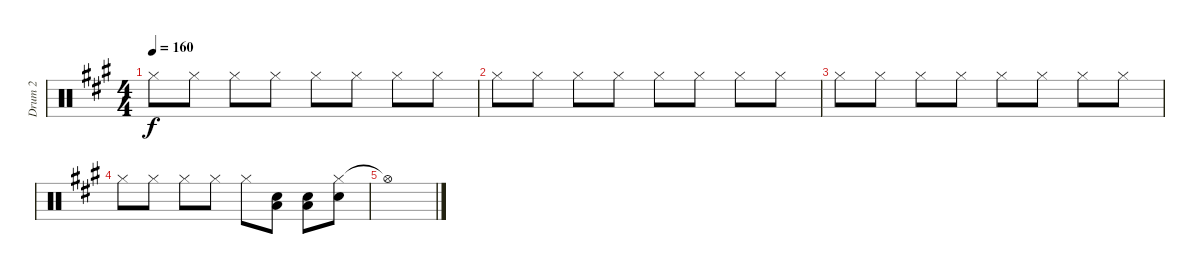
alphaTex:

\track ("Drum 2" "Drum 2") {instrument percussion}
\staff {score}
\articulation defaults
\ts (4 4)
\tempo 160
\clef neutral
\ks a "Hi-Hat (closed)".8{dy f} "Hi-Hat (closed)".8 "Hi-Hat (closed)".8 "Hi-Hat (closed)".8 "Hi-Hat (closed)".8 "Hi-Hat (closed)".8 "Hi-Hat (closed)".8 "Hi-Hat (closed)".8
|
"Hi-Hat (closed)".8 "Hi-Hat (closed)".8 "Hi-Hat (closed)".8 "Hi-Hat (closed)".8 "Hi-Hat (closed)".8 "Hi-Hat (closed)".8 "Hi-Hat (closed)".8 "Hi-Hat (closed)".8 |
"Hi-Hat (closed)".8 "Hi-Hat (closed)".8 "Hi-Hat (closed)".8 "Hi-Hat (closed)".8 "Hi-Hat (closed)".8 "Hi-Hat (closed)".8 "Hi-Hat (closed)".8 "Hi-Hat (closed)".8 |
"Hi-Hat (closed)".8 "Hi-Hat (closed)".8 "Hi-Hat (closed)".8 "Hi-Hat (closed)".8 "Hi-Hat (closed)".8 ("Snare (hit) 2" "Low Tom (hit)").8 ("Snare (hit) 2" "Low Tom (hit)").8 ("Hi-Hat (closed)" "Snare (hit) 2").8 |
"Hi-Hat (open)"{t}.1
